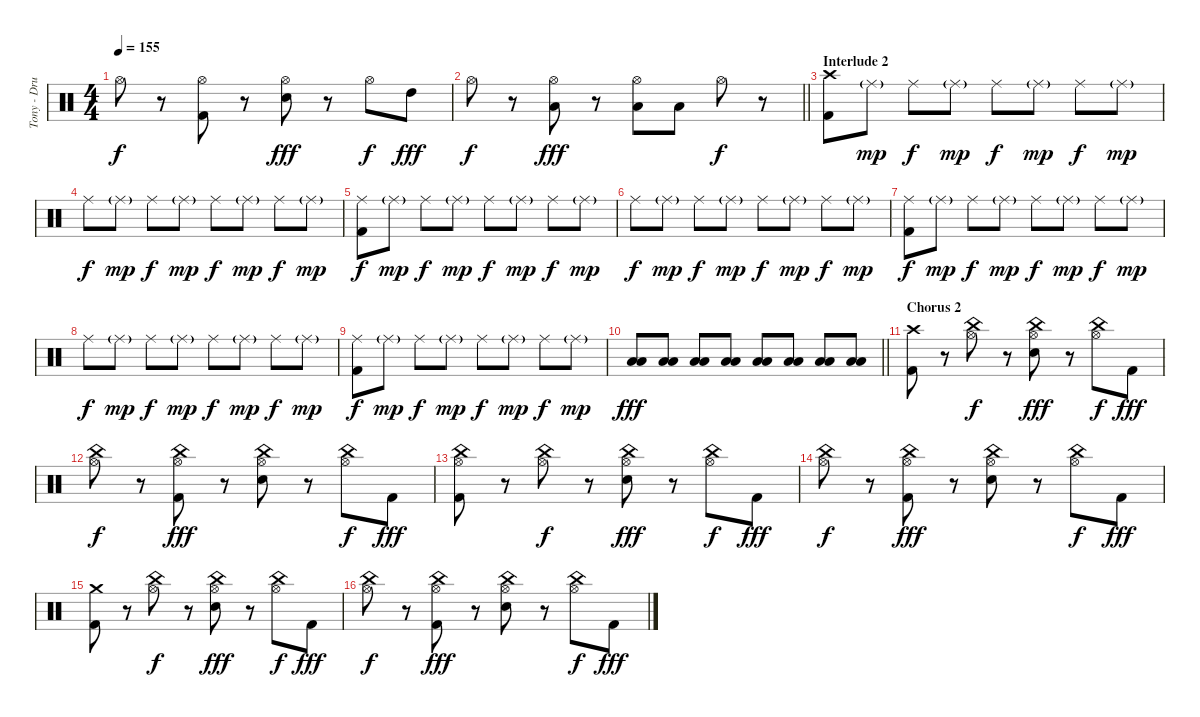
\track ("Tony - Drums" "Tony - Dru") {instrument percussion}
\staff {score}
\articulation defaults
\ts (4 4)
\tempo 155
\clef neutral
\ks c "Hi-Hat (open)".8{dy f}
r.8 ("Hi-Hat (open)" "Kick (hit) 2").8 r.8 ("Hi-Hat (open)" "Electric Snare (hit)").8{dy fff} r.8 "Hi-Hat (open)".8{dy f} "High Tom (hit)".8{dy fff} |
\barLineRight lightlight "Hi-Hat (open)".8{dy f}
r.8 ("Hi-Hat (open)" "Low Tom (hit)").8{dy fff} r.8 ("Hi-Hat (open)" "Low Floor Tom (hit)").8 "Low Floor Tom (hit)".8 "Hi-Hat (open)".8{dy f} r.8 |
\section ("" "Interlude 2")
("Crash high (hit)" "Kick (hit) 2").8 "Ride (middle)"{g}.8{dy mp} "Ride (middle)".8{dy f} "Ride (middle)"{g}.8{dy mp} "Ride (middle)".8{dy f} "Ride (middle)"{g}.8{dy mp} "Ride (middle)".8{dy f} "Ride (middle)"{g}.8{dy mp} |
"Ride (middle)".8{dy f} "Ride (middle)"{g}.8{dy mp} "Ride (middle)".8{dy f} "Ride (middle)"{g}.8{dy mp} "Ride (middle)".8{dy f} "Ride (middle)"{g}.8{dy mp} "Ride (middle)".8{dy f} "Ride (middle)"{g}.8{dy mp} |
("Ride (middle)" "Kick (hit) 2").8{dy f} "Ride (middle)"{g}.8{dy mp} "Ride (middle)".8{dy f} "Ride (middle)"{g}.8{dy mp} "Ride (middle)".8{dy f} "Ride (middle)"{g}.8{dy mp} "Ride (middle)".8{dy f} "Ride (middle)"{g}.8{dy mp} |
"Ride (middle)".8{dy f} "Ride (middle)"{g}.8{dy mp} "Ride (middle)".8{dy f} "Ride (middle)"{g}.8{dy mp} "Ride (middle)".8{dy f} "Ride (middle)"{g}.8{dy mp} "Ride (middle)".8{dy f} "Ride (middle)"{g}.8{dy mp} |
("Ride (middle)" "Kick (hit) 2").8{dy f} "Ride (middle)"{g}.8{dy mp} "Ride (middle)".8{dy f} "Ride (middle)"{g}.8{dy mp} "Ride (middle)".8{dy f} "Ride (middle)"{g}.8{dy mp} "Ride (middle)".8{dy f} "Ride (middle)"{g}.8{dy mp} |
"Ride (middle)".8{dy f} "Ride (middle)"{g}.8{dy mp} "Ride (middle)".8{dy f} "Ride (middle)"{g}.8{dy mp} "Ride (middle)".8{dy f} "Ride (middle)"{g}.8{dy mp} "Ride (middle)".8{dy f} "Ride (middle)"{g}.8{dy mp} |
("Ride (middle)" "Kick (hit) 2").8{dy f} "Ride (middle)"{g}.8{dy mp} "Ride (middle)".8{dy f} "Ride (middle)"{g}.8{dy mp} "Ride (middle)".8{dy f} "Ride (middle)"{g}.8{dy mp} "Ride (middle)".8{dy f} "Ride (middle)"{g}.8{dy mp} |
\barLineRight lightlight
("Low Tom (hit)" "Low Floor Tom (hit)").8{dy fff} ("Low Tom (hit)" "Low Floor Tom (hit)").8 ("Low Tom (hit)" "Low Floor Tom (hit)").8 ("Low Tom (hit)" "Low Floor Tom (hit)").8 ("Low Tom (hit)" "Low Floor Tom (hit)").8 ("Low Tom (hit)" "Low Floor Tom (hit)").8 ("Low Tom (hit)" "Low Floor Tom (hit)").8 ("Low Tom (hit)" "Low Floor Tom (hit)").8 |
\section ("" "Chorus 2")
("Crash high (hit)" "Kick (hit) 2").8 r.8 ("Hi-Hat (open)" "China (hit)").8{dy f} r.8 ("Hi-Hat (open)" "China (hit)" "Electric Snare (hit)").8{dy fff} r.8 ("Hi-Hat (open)" "China (hit)").8{dy f} "Kick (hit) 2".8{dy fff} |
("Hi-Hat (open)" "China (hit)").8{dy f} r.8 ("Hi-Hat (open)" "China (hit)" "Kick (hit) 2").8{dy fff} r.8 ("Hi-Hat (open)" "China (hit)" "Electric Snare (hit)").8 r.8 ("Hi-Hat (open)" "China (hit)").8{dy f} "Kick (hit) 2".8{dy fff} |
("Hi-Hat (open)" "China (hit)" "Kick (hit) 2").8 r.8 ("Hi-Hat (open)" "China (hit)").8{dy f} r.8 ("Hi-Hat (open)" "China (hit)" "Electric Snare (hit)").8{dy fff} r.8 ("Hi-Hat (open)" "China (hit)").8{dy f} "Kick (hit) 2".8{dy fff} |
("Hi-Hat (open)" "China (hit)").8{dy f} r.8 ("Hi-Hat (open)" "China (hit)" "Kick (hit) 2").8{dy fff} r.8 ("Hi-Hat (open)" "China (hit)" "Electric Snare (hit)").8 r.8 ("Hi-Hat (open)" "China (hit)").8{dy f} "Kick (hit) 2".8{dy fff} |
("Crash medium (hit)" "Kick (hit) 2").8 r.8 ("Hi-Hat (open)" "China (hit)").8{dy f} r.8 ("Hi-Hat (open)" "China (hit)" "Electric Snare (hit)").8{dy fff} r.8 ("Hi-Hat (open)" "China (hit)").8{dy f} "Kick (hit) 2".8{dy fff} |
("Hi-Hat (open)" "China (hit)").8{dy f} r.8 ("Hi-Hat (open)" "China (hit)" "Kick (hit) 2").8{dy fff} r.8 ("Hi-Hat (open)" "China (hit)" "Electric Snare (hit)").8 r.8 ("Hi-Hat (open)" "China (hit)").8{dy f} "Kick (hit) 2".8{dy fff}
